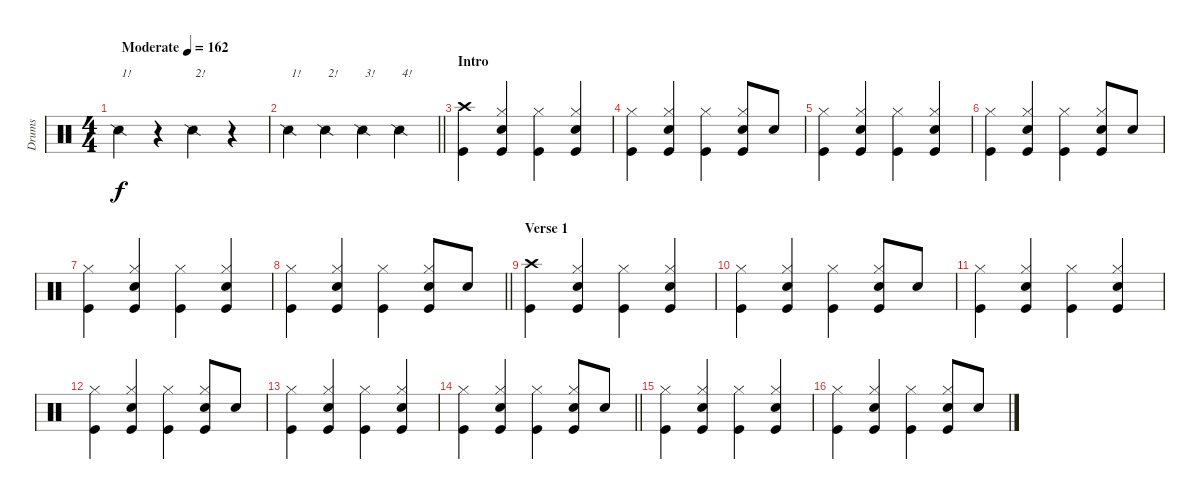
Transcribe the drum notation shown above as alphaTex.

\track ("Drums" "Drums") {instrument percussion}
\staff {score}
\articulation defaults
\ts (4 4)
\tempo (162 "Moderate")
\clef neutral
\ks c "Snare (side stick) 2".4{txt "1!" dy f}
r.4 "Snare (side stick) 2".4{txt "2!"} r.4 |
\barLineRight lightlight "Snare (side stick) 2".4{txt "1!"} "Snare (side stick) 2".4{txt "2!"} "Snare (side stick) 2".4{txt "3!"} "Snare (side stick) 2".4{txt "4!"}
|
\section ("" "Intro")
("Crash high (hit)" "Kick (hit)").4 ("Hi-Hat (closed)" "Snare (hit) 2" "Kick (hit)").4 ("Hi-Hat (closed)" "Kick (hit)").4 ("Hi-Hat (closed)" "Snare (hit) 2" "Kick (hit)").4 |
("Hi-Hat (closed)" "Kick (hit)").4 ("Hi-Hat (closed)" "Snare (hit) 2" "Kick (hit)").4 ("Hi-Hat (closed)" "Kick (hit)").4 ("Hi-Hat (closed)" "Snare (hit) 2" "Kick (hit)").8 "Snare (hit) 2".8 |
("Hi-Hat (closed)" "Kick (hit)").4 ("Hi-Hat (closed)" "Snare (hit) 2" "Kick (hit)").4 ("Hi-Hat (closed)" "Kick (hit)").4 ("Hi-Hat (closed)" "Snare (hit) 2" "Kick (hit)").4 |
("Hi-Hat (closed)" "Kick (hit)").4 ("Hi-Hat (closed)" "Snare (hit) 2" "Kick (hit)").4 ("Hi-Hat (closed)" "Kick (hit)").4 ("Hi-Hat (closed)" "Snare (hit) 2" "Kick (hit)").8 "Snare (hit) 2".8 |
("Hi-Hat (closed)" "Kick (hit)").4 ("Hi-Hat (closed)" "Snare (hit) 2" "Kick (hit)").4 ("Hi-Hat (closed)" "Kick (hit)").4 ("Hi-Hat (closed)" "Snare (hit) 2" "Kick (hit)").4 |
\barLineRight lightlight
("Hi-Hat (closed)" "Kick (hit)").4 ("Hi-Hat (closed)" "Snare (hit) 2" "Kick (hit)").4 ("Hi-Hat (closed)" "Kick (hit)").4 ("Hi-Hat (closed)" "Snare (hit) 2" "Kick (hit)").8 "Snare (hit) 2".8 |
\section ("" "Verse 1")
("Crash high (hit)" "Kick (hit)").4 ("Hi-Hat (closed)" "Snare (hit) 2" "Kick (hit)").4 ("Hi-Hat (closed)" "Kick (hit)").4 ("Hi-Hat (closed)" "Snare (hit) 2" "Kick (hit)").4 |
("Hi-Hat (closed)" "Kick (hit)").4 ("Hi-Hat (closed)" "Snare (hit) 2" "Kick (hit)").4 ("Hi-Hat (closed)" "Kick (hit)").4 ("Hi-Hat (closed)" "Snare (hit) 2" "Kick (hit)").8 "Snare (hit) 2".8 |
("Hi-Hat (closed)" "Kick (hit)").4 ("Hi-Hat (closed)" "Snare (hit) 2" "Kick (hit)").4 ("Hi-Hat (closed)" "Kick (hit)").4 ("Hi-Hat (closed)" "Snare (hit) 2" "Kick (hit)").4 |
("Hi-Hat (closed)" "Kick (hit)").4 ("Hi-Hat (closed)" "Snare (hit) 2" "Kick (hit)").4 ("Hi-Hat (closed)" "Kick (hit)").4 ("Hi-Hat (closed)" "Snare (hit) 2" "Kick (hit)").8 "Snare (hit) 2".8 |
("Hi-Hat (closed)" "Kick (hit)").4 ("Hi-Hat (closed)" "Snare (hit) 2" "Kick (hit)").4 ("Hi-Hat (closed)" "Kick (hit)").4 ("Hi-Hat (closed)" "Snare (hit) 2" "Kick (hit)").4 |
\barLineRight lightlight
("Hi-Hat (closed)" "Kick (hit)").4 ("Hi-Hat (closed)" "Snare (hit) 2" "Kick (hit)").4 ("Hi-Hat (closed)" "Kick (hit)").4 ("Hi-Hat (closed)" "Snare (hit) 2" "Kick (hit)").8 "Snare (hit) 2".8 |
("Hi-Hat (closed)" "Kick (hit)").4 ("Hi-Hat (closed)" "Snare (hit) 2" "Kick (hit)").4 ("Hi-Hat (closed)" "Kick (hit)").4 ("Hi-Hat (closed)" "Snare (hit) 2" "Kick (hit)").4 |
("Hi-Hat (closed)" "Kick (hit)").4 ("Hi-Hat (closed)" "Snare (hit) 2" "Kick (hit)").4 ("Hi-Hat (closed)" "Kick (hit)").4 ("Hi-Hat (closed)" "Snare (hit) 2" "Kick (hit)").8 "Snare (hit) 2".8
